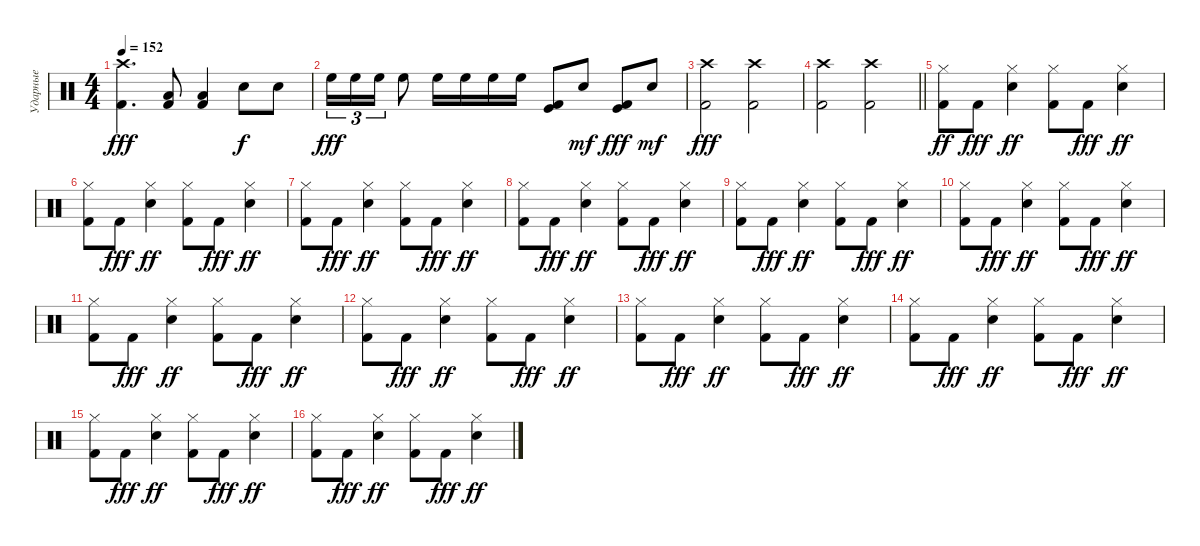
\track ("Ударные" "Ударные") {instrument percussion}
\staff
\articulation defaults
\ts (4 4)
\tempo 152
\clef neutral
\ks c
("Kick (hit) 2" "Crash high (hit)").4{d dy fff} ("Kick (hit) 2" "Low Tom (hit)").8 ("Kick (hit) 2" "Low Tom (hit)").4 "Snare (hit) 2".8{dy f} "Snare (hit) 2".8 |
"High Floor Tom (hit)".16{tu (3 2) dy fff} "High Floor Tom (hit)".16{tu (3 2)} "High Floor Tom (hit)".16{tu (3 2)} "High Floor Tom (hit)".8 "High Floor Tom (hit)".16 "High Floor Tom (hit)".16 "High Floor Tom (hit)".16 "High Floor Tom (hit)".16 ("Kick (hit) 2" "Kick (hit)").8 "Electric Snare (hit)".8{dy mf} ("Kick (hit) 2" "Kick (hit)").8{dy fff} "Electric Snare (hit)".8{dy mf} |
("Kick (hit) 2" "Crash high (hit)").2{dy fff} ("Kick (hit) 2" "Crash high (hit)").2 |
\barLineRight lightlight
("Kick (hit) 2" "Crash high (hit)").2 ("Kick (hit) 2" "Crash high (hit)").2 |
("Kick (hit) 2" "Hi-Hat (closed)").8{dy ff} "Kick (hit) 2".8{dy fff} ("Snare (hit) 2" "Hi-Hat (closed)").4{dy ff} ("Kick (hit) 2" "Hi-Hat (closed)").8 "Kick (hit) 2".8{dy fff} ("Snare (hit) 2" "Hi-Hat (closed)").4{dy ff} |
("Kick (hit) 2" "Hi-Hat (closed)").8 "Kick (hit) 2".8{dy fff} ("Snare (hit) 2" "Hi-Hat (closed)").4{dy ff} ("Kick (hit) 2" "Hi-Hat (closed)").8 "Kick (hit) 2".8{dy fff} ("Snare (hit) 2" "Hi-Hat (closed)").4{dy ff} |
("Kick (hit) 2" "Hi-Hat (closed)").8 "Kick (hit) 2".8{dy fff} ("Snare (hit) 2" "Hi-Hat (closed)").4{dy ff} ("Kick (hit) 2" "Hi-Hat (closed)").8 "Kick (hit) 2".8{dy fff} ("Snare (hit) 2" "Hi-Hat (closed)").4{dy ff} |
("Kick (hit) 2" "Hi-Hat (closed)").8 "Kick (hit) 2".8{dy fff} ("Snare (hit) 2" "Hi-Hat (closed)").4{dy ff} ("Kick (hit) 2" "Hi-Hat (closed)").8 "Kick (hit) 2".8{dy fff} ("Snare (hit) 2" "Hi-Hat (closed)").4{dy ff} |
("Kick (hit) 2" "Hi-Hat (closed)").8 "Kick (hit) 2".8{dy fff} ("Snare (hit) 2" "Hi-Hat (closed)").4{dy ff} ("Kick (hit) 2" "Hi-Hat (closed)").8 "Kick (hit) 2".8{dy fff} ("Snare (hit) 2" "Hi-Hat (closed)").4{dy ff} |
("Kick (hit) 2" "Hi-Hat (closed)").8 "Kick (hit) 2".8{dy fff} ("Snare (hit) 2" "Hi-Hat (closed)").4{dy ff} ("Kick (hit) 2" "Hi-Hat (closed)").8 "Kick (hit) 2".8{dy fff} ("Snare (hit) 2" "Hi-Hat (closed)").4{dy ff} |
("Kick (hit) 2" "Hi-Hat (closed)").8 "Kick (hit) 2".8{dy fff} ("Snare (hit) 2" "Hi-Hat (closed)").4{dy ff} ("Kick (hit) 2" "Hi-Hat (closed)").8 "Kick (hit) 2".8{dy fff} ("Snare (hit) 2" "Hi-Hat (closed)").4{dy ff} |
("Kick (hit) 2" "Hi-Hat (closed)").8 "Kick (hit) 2".8{dy fff} ("Snare (hit) 2" "Hi-Hat (closed)").4{dy ff} ("Kick (hit) 2" "Hi-Hat (closed)").8 "Kick (hit) 2".8{dy fff} ("Snare (hit) 2" "Hi-Hat (closed)").4{dy ff} |
("Kick (hit) 2" "Hi-Hat (closed)").8 "Kick (hit) 2".8{dy fff} ("Snare (hit) 2" "Hi-Hat (closed)").4{dy ff} ("Kick (hit) 2" "Hi-Hat (closed)").8 "Kick (hit) 2".8{dy fff} ("Snare (hit) 2" "Hi-Hat (closed)").4{dy ff} |
("Kick (hit) 2" "Hi-Hat (closed)").8 "Kick (hit) 2".8{dy fff} ("Snare (hit) 2" "Hi-Hat (closed)").4{dy ff} ("Kick (hit) 2" "Hi-Hat (closed)").8 "Kick (hit) 2".8{dy fff} ("Snare (hit) 2" "Hi-Hat (closed)").4{dy ff} |
("Kick (hit) 2" "Hi-Hat (closed)").8 "Kick (hit) 2".8{dy fff} ("Snare (hit) 2" "Hi-Hat (closed)").4{dy ff} ("Kick (hit) 2" "Hi-Hat (closed)").8 "Kick (hit) 2".8{dy fff} ("Snare (hit) 2" "Hi-Hat (closed)").4{dy ff} |
("Kick (hit) 2" "Hi-Hat (closed)").8 "Kick (hit) 2".8{dy fff} ("Snare (hit) 2" "Hi-Hat (closed)").4{dy ff} ("Kick (hit) 2" "Hi-Hat (closed)").8 "Kick (hit) 2".8{dy fff} ("Snare (hit) 2" "Hi-Hat (closed)").4{dy ff}
